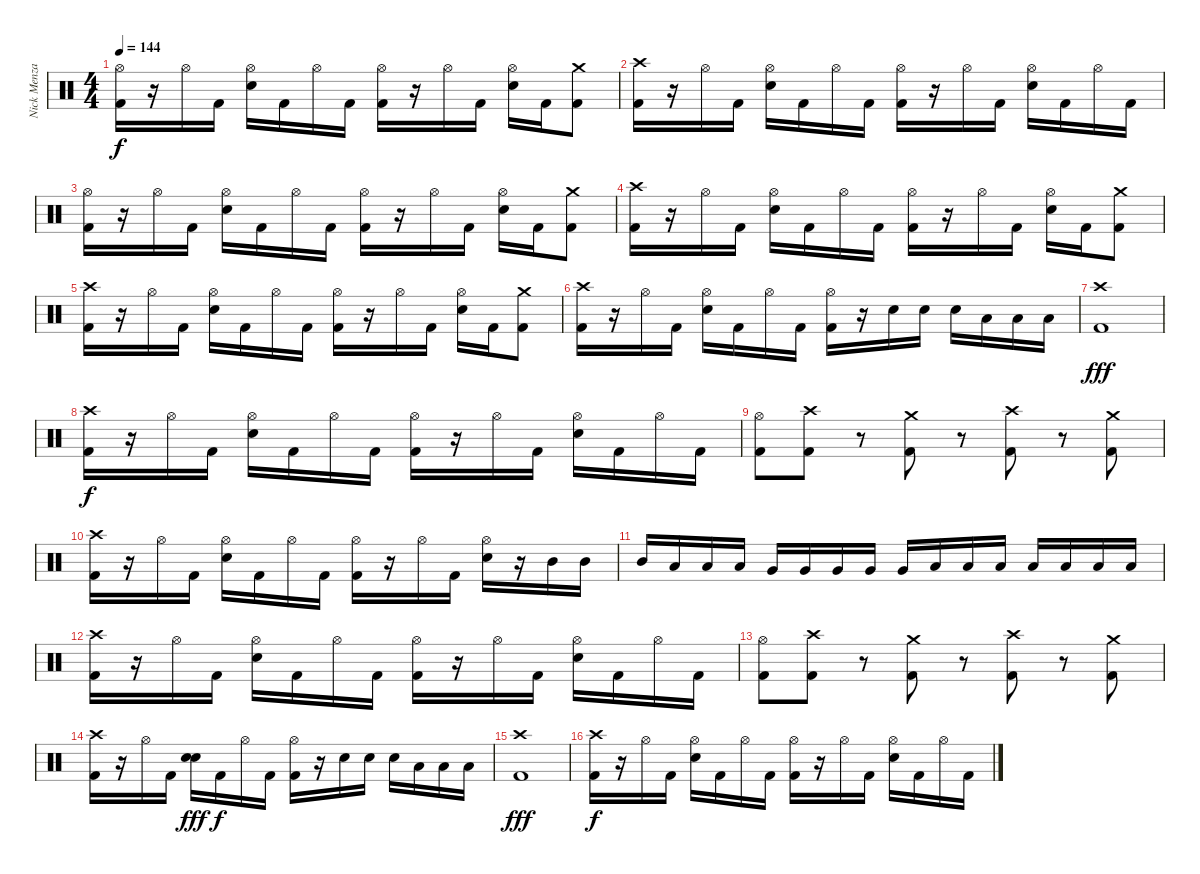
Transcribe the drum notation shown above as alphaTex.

\track ("Nick Menza" "Nick Menza") {instrument percussion}
\staff {score}
\articulation defaults
\ts (4 4)
\tempo 144
\clef neutral
\ks c
("Hi-Hat (open)" "Kick (hit) 2").16{dy f} r.16 "Hi-Hat (open)".16 "Kick (hit) 2".16 ("Hi-Hat (open)" "Electric Snare (hit)").16 "Kick (hit) 2".16 "Hi-Hat (open)".16 "Kick (hit) 2".16 ("Hi-Hat (open)" "Kick (hit) 2").16 r.16 "Hi-Hat (open)".16 "Kick (hit) 2".16 ("Hi-Hat (open)" "Electric Snare (hit)").16 "Kick (hit) 2".16 ("Crash medium (hit)" "Kick (hit) 2").8 |
("Crash high (hit)" "Kick (hit) 2").16 r.16 "Hi-Hat (open)".16 "Kick (hit) 2".16 ("Hi-Hat (open)" "Electric Snare (hit)").16 "Kick (hit) 2".16 "Hi-Hat (open)".16 "Kick (hit) 2".16 ("Hi-Hat (open)" "Kick (hit) 2").16 r.16 "Hi-Hat (open)".16 "Kick (hit) 2".16 ("Hi-Hat (open)" "Electric Snare (hit)").16 "Kick (hit) 2".16 "Hi-Hat (open)".16 "Kick (hit) 2".16 |
("Hi-Hat (open)" "Kick (hit) 2").16 r.16 "Hi-Hat (open)".16 "Kick (hit) 2".16 ("Hi-Hat (open)" "Electric Snare (hit)").16 "Kick (hit) 2".16 "Hi-Hat (open)".16 "Kick (hit) 2".16 ("Hi-Hat (open)" "Kick (hit) 2").16 r.16 "Hi-Hat (open)".16 "Kick (hit) 2".16 ("Hi-Hat (open)" "Electric Snare (hit)").16 "Kick (hit) 2".16 ("Crash medium (hit)" "Kick (hit) 2").8 |
("Crash high (hit)" "Kick (hit) 2").16 r.16 "Hi-Hat (open)".16 "Kick (hit) 2".16 ("Hi-Hat (open)" "Electric Snare (hit)").16 "Kick (hit) 2".16 "Hi-Hat (open)".16 "Kick (hit) 2".16 ("Hi-Hat (open)" "Kick (hit) 2").16 r.16 "Hi-Hat (open)".16 "Kick (hit) 2".16 ("Hi-Hat (open)" "Electric Snare (hit)").16 "Kick (hit) 2".16 ("Crash medium (hit)" "Kick (hit) 2").8 |
("Crash high (hit)" "Kick (hit) 2").16 r.16 "Hi-Hat (open)".16 "Kick (hit) 2".16 ("Hi-Hat (open)" "Electric Snare (hit)").16 "Kick (hit) 2".16 "Hi-Hat (open)".16 "Kick (hit) 2".16 ("Hi-Hat (open)" "Kick (hit) 2").16 r.16 "Hi-Hat (open)".16 "Kick (hit) 2".16 ("Hi-Hat (open)" "Electric Snare (hit)").16 "Kick (hit) 2".16 ("Crash medium (hit)" "Kick (hit) 2").8 |
("Crash high (hit)" "Kick (hit) 2").16 r.16 "Hi-Hat (open)".16 "Kick (hit) 2".16 ("Hi-Hat (open)" "Electric Snare (hit)").16 "Kick (hit) 2".16 "Hi-Hat (open)".16 "Kick (hit) 2".16 ("Hi-Hat (open)" "Kick (hit) 2").16 r.16 "Electric Snare (hit)".16 "Electric Snare (hit)".16 "Electric Snare (hit)".16 "Low Tom (hit)".16 "Low Tom (hit)".16 "Low Tom (hit)".16 |
("Crash high (hit)" "Kick (hit) 2").1{dy fff} |
("Crash high (hit)" "Kick (hit) 2").16{dy f} r.16 "Hi-Hat (open)".16 "Kick (hit) 2".16 ("Hi-Hat (open)" "Electric Snare (hit)").16 "Kick (hit) 2".16 "Hi-Hat (open)".16 "Kick (hit) 2".16 ("Hi-Hat (open)" "Kick (hit) 2").16 r.16 "Hi-Hat (open)".16 "Kick (hit) 2".16 ("Hi-Hat (open)" "Electric Snare (hit)").16 "Kick (hit) 2".16 "Hi-Hat (open)".16 "Kick (hit) 2".16 |
("Hi-Hat (open)" "Kick (hit) 2").8 ("Crash high (hit)" "Kick (hit) 2").8 r.8 ("Crash medium (hit)" "Kick (hit) 2").8 r.8 ("Crash high (hit)" "Kick (hit) 2").8 r.8 ("Crash medium (hit)" "Kick (hit) 2").8 |
("Crash high (hit)" "Kick (hit) 2").16 r.16 "Hi-Hat (open)".16 "Kick (hit) 2".16 ("Hi-Hat (open)" "Electric Snare (hit)").16 "Kick (hit) 2".16 "Hi-Hat (open)".16 "Kick (hit) 2".16 ("Hi-Hat (open)" "Kick (hit) 2").16 r.16 "Hi-Hat (open)".16 "Kick (hit) 2".16 ("Hi-Hat (open)" "Electric Snare (hit)").16 r.16 "Mid Tom (hit)".16 "Mid Tom (hit)".16 |
"Mid Tom (hit)".16 "Low Tom (hit)".16 "Low Tom (hit)".16 "Low Tom (hit)".16 "Very Low Tom (hit)".16 "Very Low Tom (hit)".16 "Very Low Tom (hit)".16 "Very Low Tom (hit)".16 "Very Low Tom (hit)".16 "Low Floor Tom (hit)".16 "Low Floor Tom (hit)".16 "Low Floor Tom (hit)".16 "Low Floor Tom (hit)".16 "Low Floor Tom (hit)".16 "Low Floor Tom (hit)".16 "Low Floor Tom (hit)".16 |
("Crash high (hit)" "Kick (hit) 2").16 r.16 "Hi-Hat (open)".16 "Kick (hit) 2".16 ("Hi-Hat (open)" "Electric Snare (hit)").16 "Kick (hit) 2".16 "Hi-Hat (open)".16 "Kick (hit) 2".16 ("Hi-Hat (open)" "Kick (hit) 2").16 r.16 "Hi-Hat (open)".16 "Kick (hit) 2".16 ("Hi-Hat (open)" "Electric Snare (hit)").16 "Kick (hit) 2".16 "Hi-Hat (open)".16 "Kick (hit) 2".16 |
("Hi-Hat (open)" "Kick (hit) 2").8 ("Crash high (hit)" "Kick (hit) 2").8 r.8 ("Crash medium (hit)" "Kick (hit) 2").8 r.8 ("Crash high (hit)" "Kick (hit) 2").8 r.8 ("Crash medium (hit)" "Kick (hit) 2").8 |
("Crash high (hit)" "Kick (hit) 2").16 r.16 "Hi-Hat (open)".16 "Kick (hit) 2".16 ("Electric Snare (hit)" "Electric Snare (hit)").16{dy fff} "Kick (hit) 2".16{dy f} "Hi-Hat (open)".16 "Kick (hit) 2".16 ("Hi-Hat (open)" "Kick (hit) 2").16 r.16 "Electric Snare (hit)".16 "Electric Snare (hit)".16 "Electric Snare (hit)".16 "Low Tom (hit)".16 "Low Tom (hit)".16 "Low Tom (hit)".16 |
("Crash high (hit)" "Kick (hit) 2").1{dy fff} |
("Crash high (hit)" "Kick (hit) 2").16{dy f} r.16 "Hi-Hat (open)".16 "Kick (hit) 2".16 ("Hi-Hat (open)" "Electric Snare (hit)").16 "Kick (hit) 2".16 "Hi-Hat (open)".16 "Kick (hit) 2".16 ("Hi-Hat (open)" "Kick (hit) 2").16 r.16 "Hi-Hat (open)".16 "Kick (hit) 2".16 ("Hi-Hat (open)" "Electric Snare (hit)").16 "Kick (hit) 2".16 "Hi-Hat (open)".16 "Kick (hit) 2".16
